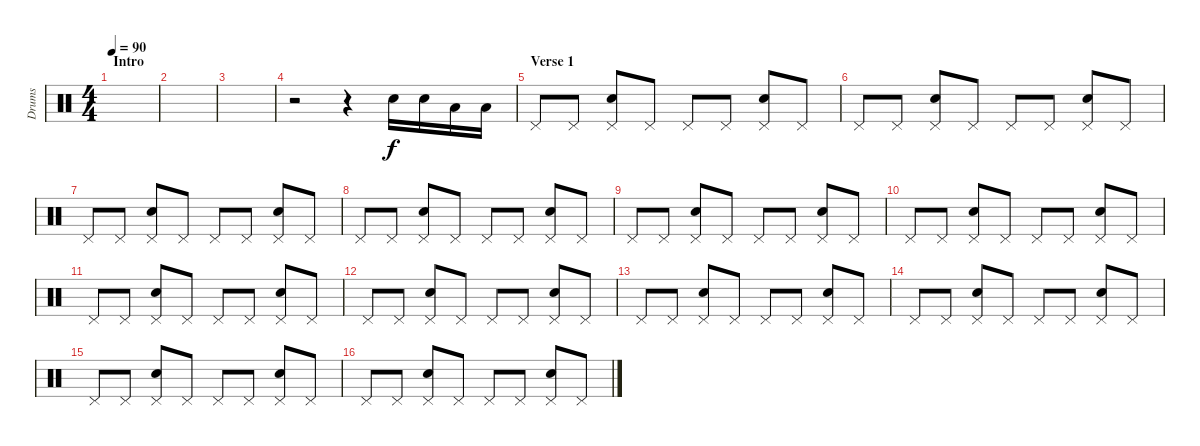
\track ("Drums" "Drums") {instrument percussion}
\staff {score}
\articulation defaults
\ts (4 4)
\section ("" "Intro")
\tempo 90
\clef neutral
\ks c
|
|
|
r.2 r.4 "Electric Snare (hit)".16 "Electric Snare (hit)".16 "Low Floor Tom (hit)".16 "Low Floor Tom (hit)".16 |
\section ("" "Verse 1")
"Pedal Hi-Hat (hit)".8 "Pedal Hi-Hat (hit)".8 ("Pedal Hi-Hat (hit)" "Electric Snare (hit)").8 "Pedal Hi-Hat (hit)".8 "Pedal Hi-Hat (hit)".8 "Pedal Hi-Hat (hit)".8 ("Pedal Hi-Hat (hit)" "Electric Snare (hit)").8 "Pedal Hi-Hat (hit)".8 |
"Pedal Hi-Hat (hit)".8 "Pedal Hi-Hat (hit)".8 ("Pedal Hi-Hat (hit)" "Electric Snare (hit)").8 "Pedal Hi-Hat (hit)".8 "Pedal Hi-Hat (hit)".8 "Pedal Hi-Hat (hit)".8 ("Pedal Hi-Hat (hit)" "Electric Snare (hit)").8 "Pedal Hi-Hat (hit)".8 |
"Pedal Hi-Hat (hit)".8 "Pedal Hi-Hat (hit)".8 ("Pedal Hi-Hat (hit)" "Electric Snare (hit)").8 "Pedal Hi-Hat (hit)".8 "Pedal Hi-Hat (hit)".8 "Pedal Hi-Hat (hit)".8 ("Pedal Hi-Hat (hit)" "Electric Snare (hit)").8 "Pedal Hi-Hat (hit)".8 |
"Pedal Hi-Hat (hit)".8 "Pedal Hi-Hat (hit)".8 ("Pedal Hi-Hat (hit)" "Electric Snare (hit)").8 "Pedal Hi-Hat (hit)".8 "Pedal Hi-Hat (hit)".8 "Pedal Hi-Hat (hit)".8 ("Pedal Hi-Hat (hit)" "Electric Snare (hit)").8 "Pedal Hi-Hat (hit)".8 |
"Pedal Hi-Hat (hit)".8 "Pedal Hi-Hat (hit)".8 ("Pedal Hi-Hat (hit)" "Electric Snare (hit)").8 "Pedal Hi-Hat (hit)".8 "Pedal Hi-Hat (hit)".8 "Pedal Hi-Hat (hit)".8 ("Pedal Hi-Hat (hit)" "Electric Snare (hit)").8 "Pedal Hi-Hat (hit)".8 |
"Pedal Hi-Hat (hit)".8 "Pedal Hi-Hat (hit)".8 ("Pedal Hi-Hat (hit)" "Electric Snare (hit)").8 "Pedal Hi-Hat (hit)".8 "Pedal Hi-Hat (hit)".8 "Pedal Hi-Hat (hit)".8 ("Pedal Hi-Hat (hit)" "Electric Snare (hit)").8 "Pedal Hi-Hat (hit)".8 |
"Pedal Hi-Hat (hit)".8 "Pedal Hi-Hat (hit)".8 ("Pedal Hi-Hat (hit)" "Electric Snare (hit)").8 "Pedal Hi-Hat (hit)".8 "Pedal Hi-Hat (hit)".8 "Pedal Hi-Hat (hit)".8 ("Pedal Hi-Hat (hit)" "Electric Snare (hit)").8 "Pedal Hi-Hat (hit)".8 |
"Pedal Hi-Hat (hit)".8 "Pedal Hi-Hat (hit)".8 ("Pedal Hi-Hat (hit)" "Electric Snare (hit)").8 "Pedal Hi-Hat (hit)".8 "Pedal Hi-Hat (hit)".8 "Pedal Hi-Hat (hit)".8 ("Pedal Hi-Hat (hit)" "Electric Snare (hit)").8 "Pedal Hi-Hat (hit)".8 |
"Pedal Hi-Hat (hit)".8 "Pedal Hi-Hat (hit)".8 ("Pedal Hi-Hat (hit)" "Electric Snare (hit)").8 "Pedal Hi-Hat (hit)".8 "Pedal Hi-Hat (hit)".8 "Pedal Hi-Hat (hit)".8 ("Pedal Hi-Hat (hit)" "Electric Snare (hit)").8 "Pedal Hi-Hat (hit)".8 |
"Pedal Hi-Hat (hit)".8 "Pedal Hi-Hat (hit)".8 ("Pedal Hi-Hat (hit)" "Electric Snare (hit)").8 "Pedal Hi-Hat (hit)".8 "Pedal Hi-Hat (hit)".8 "Pedal Hi-Hat (hit)".8 ("Pedal Hi-Hat (hit)" "Electric Snare (hit)").8 "Pedal Hi-Hat (hit)".8 |
"Pedal Hi-Hat (hit)".8 "Pedal Hi-Hat (hit)".8 ("Pedal Hi-Hat (hit)" "Electric Snare (hit)").8 "Pedal Hi-Hat (hit)".8 "Pedal Hi-Hat (hit)".8 "Pedal Hi-Hat (hit)".8 ("Pedal Hi-Hat (hit)" "Electric Snare (hit)").8 "Pedal Hi-Hat (hit)".8 |
"Pedal Hi-Hat (hit)".8 "Pedal Hi-Hat (hit)".8 ("Pedal Hi-Hat (hit)" "Electric Snare (hit)").8 "Pedal Hi-Hat (hit)".8 "Pedal Hi-Hat (hit)".8 "Pedal Hi-Hat (hit)".8 ("Pedal Hi-Hat (hit)" "Electric Snare (hit)").8 "Pedal Hi-Hat (hit)".8
